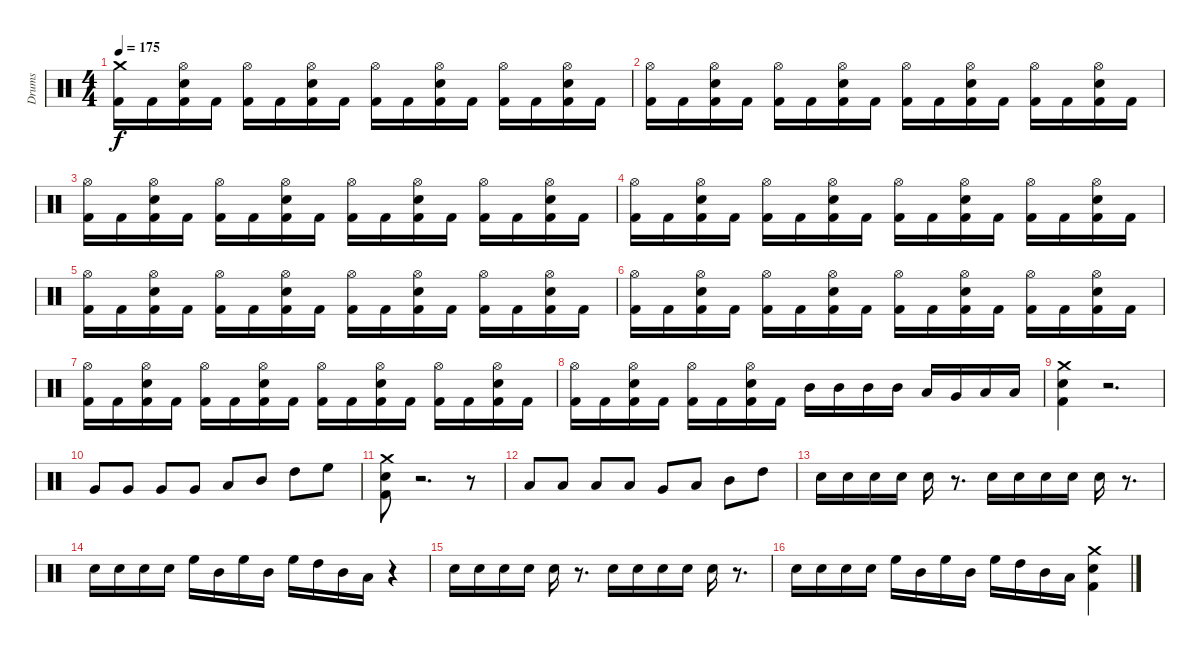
\track ("Drums" "Drums") {instrument percussion}
\staff {score}
\articulation defaults
\ts (4 4)
\tempo 175
\clef neutral
\ks c
("Crash medium (hit)" "Kick (hit) 2").16{dy f} "Kick (hit) 2".16 ("Hi-Hat (open)" "Kick (hit) 2" "Electric Snare (hit)").16 "Kick (hit) 2".16 ("Hi-Hat (open)" "Kick (hit) 2").16 "Kick (hit) 2".16 ("Hi-Hat (open)" "Kick (hit) 2" "Electric Snare (hit)").16 "Kick (hit) 2".16 ("Hi-Hat (open)" "Kick (hit) 2").16 "Kick (hit) 2".16 ("Hi-Hat (open)" "Kick (hit) 2" "Electric Snare (hit)").16 "Kick (hit) 2".16 ("Hi-Hat (open)" "Kick (hit) 2").16 "Kick (hit) 2".16 ("Hi-Hat (open)" "Kick (hit) 2" "Electric Snare (hit)").16 "Kick (hit) 2".16 |
("Hi-Hat (open)" "Kick (hit) 2").16 "Kick (hit) 2".16 ("Hi-Hat (open)" "Kick (hit) 2" "Electric Snare (hit)").16 "Kick (hit) 2".16 ("Hi-Hat (open)" "Kick (hit) 2").16 "Kick (hit) 2".16 ("Hi-Hat (open)" "Kick (hit) 2" "Electric Snare (hit)").16 "Kick (hit) 2".16 ("Hi-Hat (open)" "Kick (hit) 2").16 "Kick (hit) 2".16 ("Hi-Hat (open)" "Kick (hit) 2" "Electric Snare (hit)").16 "Kick (hit) 2".16 ("Hi-Hat (open)" "Kick (hit) 2").16 "Kick (hit) 2".16 ("Hi-Hat (open)" "Kick (hit) 2" "Electric Snare (hit)").16 "Kick (hit) 2".16 |
("Hi-Hat (open)" "Kick (hit) 2").16 "Kick (hit) 2".16 ("Hi-Hat (open)" "Kick (hit) 2" "Electric Snare (hit)").16 "Kick (hit) 2".16 ("Hi-Hat (open)" "Kick (hit) 2").16 "Kick (hit) 2".16 ("Hi-Hat (open)" "Kick (hit) 2" "Electric Snare (hit)").16 "Kick (hit) 2".16 ("Hi-Hat (open)" "Kick (hit) 2").16 "Kick (hit) 2".16 ("Hi-Hat (open)" "Kick (hit) 2" "Electric Snare (hit)").16 "Kick (hit) 2".16 ("Hi-Hat (open)" "Kick (hit) 2").16 "Kick (hit) 2".16 ("Hi-Hat (open)" "Kick (hit) 2" "Electric Snare (hit)").16 "Kick (hit) 2".16 |
("Hi-Hat (open)" "Kick (hit) 2").16 "Kick (hit) 2".16 ("Hi-Hat (open)" "Kick (hit) 2" "Electric Snare (hit)").16 "Kick (hit) 2".16 ("Hi-Hat (open)" "Kick (hit) 2").16 "Kick (hit) 2".16 ("Hi-Hat (open)" "Kick (hit) 2" "Electric Snare (hit)").16 "Kick (hit) 2".16 ("Hi-Hat (open)" "Kick (hit) 2").16 "Kick (hit) 2".16 ("Hi-Hat (open)" "Kick (hit) 2" "Electric Snare (hit)").16 "Kick (hit) 2".16 ("Hi-Hat (open)" "Kick (hit) 2").16 "Kick (hit) 2".16 ("Hi-Hat (open)" "Kick (hit) 2" "Electric Snare (hit)").16 "Kick (hit) 2".16 |
("Hi-Hat (open)" "Kick (hit) 2").16 "Kick (hit) 2".16 ("Hi-Hat (open)" "Kick (hit) 2" "Electric Snare (hit)").16 "Kick (hit) 2".16 ("Hi-Hat (open)" "Kick (hit) 2").16 "Kick (hit) 2".16 ("Hi-Hat (open)" "Kick (hit) 2" "Electric Snare (hit)").16 "Kick (hit) 2".16 ("Hi-Hat (open)" "Kick (hit) 2").16 "Kick (hit) 2".16 ("Hi-Hat (open)" "Kick (hit) 2" "Electric Snare (hit)").16 "Kick (hit) 2".16 ("Hi-Hat (open)" "Kick (hit) 2").16 "Kick (hit) 2".16 ("Hi-Hat (open)" "Kick (hit) 2" "Electric Snare (hit)").16 "Kick (hit) 2".16 |
("Hi-Hat (open)" "Kick (hit) 2").16 "Kick (hit) 2".16 ("Hi-Hat (open)" "Kick (hit) 2" "Electric Snare (hit)").16 "Kick (hit) 2".16 ("Hi-Hat (open)" "Kick (hit) 2").16 "Kick (hit) 2".16 ("Hi-Hat (open)" "Kick (hit) 2" "Electric Snare (hit)").16 "Kick (hit) 2".16 ("Hi-Hat (open)" "Kick (hit) 2").16 "Kick (hit) 2".16 ("Hi-Hat (open)" "Kick (hit) 2" "Electric Snare (hit)").16 "Kick (hit) 2".16 ("Hi-Hat (open)" "Kick (hit) 2").16 "Kick (hit) 2".16 ("Hi-Hat (open)" "Kick (hit) 2" "Electric Snare (hit)").16 "Kick (hit) 2".16 |
("Hi-Hat (open)" "Kick (hit) 2").16 "Kick (hit) 2".16 ("Hi-Hat (open)" "Kick (hit) 2" "Electric Snare (hit)").16 "Kick (hit) 2".16 ("Hi-Hat (open)" "Kick (hit) 2").16 "Kick (hit) 2".16 ("Hi-Hat (open)" "Kick (hit) 2" "Electric Snare (hit)").16 "Kick (hit) 2".16 ("Hi-Hat (open)" "Kick (hit) 2").16 "Kick (hit) 2".16 ("Hi-Hat (open)" "Kick (hit) 2" "Electric Snare (hit)").16 "Kick (hit) 2".16 ("Hi-Hat (open)" "Kick (hit) 2").16 "Kick (hit) 2".16 ("Hi-Hat (open)" "Kick (hit) 2" "Electric Snare (hit)").16 "Kick (hit) 2".16 |
("Hi-Hat (open)" "Kick (hit) 2").16 "Kick (hit) 2".16 ("Hi-Hat (open)" "Kick (hit) 2" "Electric Snare (hit)").16 "Kick (hit) 2".16 ("Hi-Hat (open)" "Kick (hit) 2").16 "Kick (hit) 2".16 ("Hi-Hat (open)" "Kick (hit) 2" "Electric Snare (hit)").16 "Kick (hit) 2".16 "Mid Tom (hit)".16 "Mid Tom (hit)".16 "Mid Tom (hit)".16 "Mid Tom (hit)".16 "Low Tom (hit)".16 "Very Low Tom (hit)".16 "Low Tom (hit)".16 "Low Tom (hit)".16 |
("Crash medium (hit)" "Electric Snare (hit)" "Kick (hit) 2").4 r.2{d} |
"Very Low Tom (hit)".8 "Very Low Tom (hit)".8 "Very Low Tom (hit)".8 "Very Low Tom (hit)".8 "Low Tom (hit)".8 "Mid Tom (hit)".8 "High Tom (hit)".8 "High Floor Tom (hit)".8 |
("Crash medium (hit)" "Electric Snare (hit)" "Kick (hit) 2").8 r.2{d} r.8 |
"Low Floor Tom (hit)".8 "Low Floor Tom (hit)".8 "Low Floor Tom (hit)".8 "Low Floor Tom (hit)".8 "Very Low Tom (hit)".8 "Low Tom (hit)".8 "Mid Tom (hit)".8 "High Tom (hit)".8 |
"Electric Snare (hit)".16 "Electric Snare (hit)".16 "Electric Snare (hit)".16 "Electric Snare (hit)".16 "Electric Snare (hit)".16 r.8{d} "Electric Snare (hit)".16 "Electric Snare (hit)".16 "Electric Snare (hit)".16 "Electric Snare (hit)".16 "Electric Snare (hit)".16 r.8{d} |
"Electric Snare (hit)".16 "Electric Snare (hit)".16 "Electric Snare (hit)".16 "Electric Snare (hit)".16 "High Floor Tom (hit)".16 "Mid Tom (hit)".16 "High Floor Tom (hit)".16 "Mid Tom (hit)".16 "High Floor Tom (hit)".16 "High Tom (hit)".16 "Mid Tom (hit)".16 "Low Tom (hit)".16 r.4 |
"Electric Snare (hit)".16 "Electric Snare (hit)".16 "Electric Snare (hit)".16 "Electric Snare (hit)".16 "Electric Snare (hit)".16 r.8{d} "Electric Snare (hit)".16 "Electric Snare (hit)".16 "Electric Snare (hit)".16 "Electric Snare (hit)".16 "Electric Snare (hit)".16 r.8{d} |
"Electric Snare (hit)".16 "Electric Snare (hit)".16 "Electric Snare (hit)".16 "Electric Snare (hit)".16 "High Floor Tom (hit)".16 "Mid Tom (hit)".16 "High Floor Tom (hit)".16 "Mid Tom (hit)".16 "High Floor Tom (hit)".16 "High Tom (hit)".16 "Mid Tom (hit)".16 "Low Tom (hit)".16 ("Crash medium (hit)" "Electric Snare (hit)" "Kick (hit) 2").4
